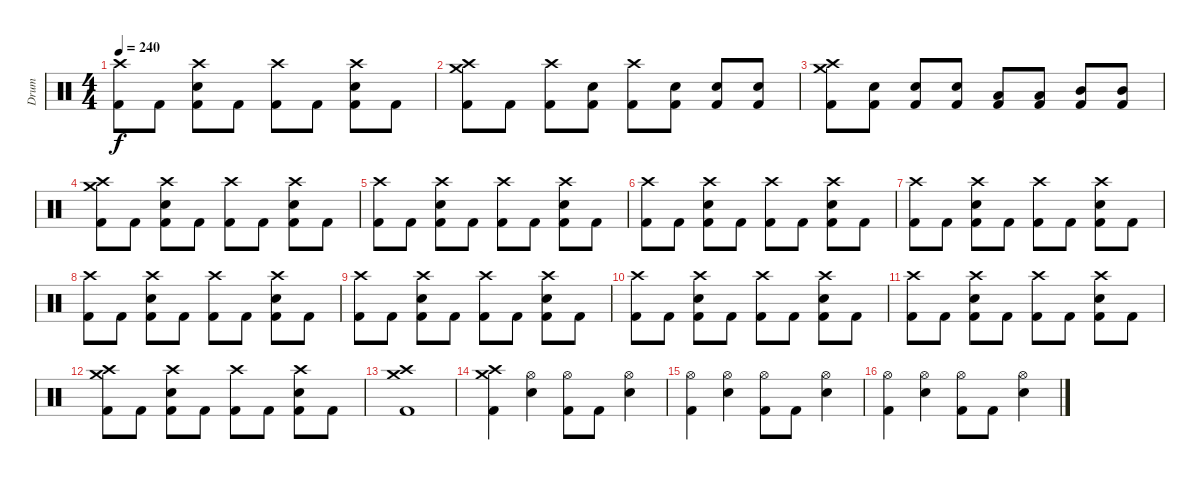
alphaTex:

\track ("Drum" "Drum") {instrument percussion}
\staff {score}
\articulation defaults
\ts (4 4)
\tempo 240
\clef neutral
\ks c
("Crash high (hit)" "Kick (hit) 2").8{dy f} "Kick (hit) 2".8 ("Crash high (hit)" "Kick (hit) 2" "Electric Snare (hit)").8 "Kick (hit) 2".8 ("Crash high (hit)" "Kick (hit) 2").8 "Kick (hit) 2".8 ("Crash high (hit)" "Kick (hit) 2" "Electric Snare (hit)").8 "Kick (hit) 2".8 |
("Crash high (hit)" "Kick (hit) 2" "Crash medium (hit)").8 "Kick (hit) 2".8 ("Crash high (hit)" "Kick (hit) 2").8 ("Kick (hit) 2" "Electric Snare (hit)").8 ("Crash high (hit)" "Kick (hit) 2").8 ("Kick (hit) 2" "Electric Snare (hit)").8 ("Kick (hit) 2" "Electric Snare (hit)").8 ("Kick (hit) 2" "Electric Snare (hit)").8 |
("Crash high (hit)" "Kick (hit) 2" "Crash medium (hit)").8 ("Kick (hit) 2" "Electric Snare (hit)").8 ("Kick (hit) 2" "Electric Snare (hit)").8 ("Kick (hit) 2" "Electric Snare (hit)").8 ("Kick (hit) 2" "Low Tom (hit)").8 ("Kick (hit) 2" "Low Tom (hit)").8 ("Kick (hit) 2" "Mid Tom (hit)").8 ("Kick (hit) 2" "Mid Tom (hit)").8 |
("Crash high (hit)" "Kick (hit) 2" "Crash medium (hit)").8 "Kick (hit) 2".8 ("Crash high (hit)" "Kick (hit) 2" "Electric Snare (hit)").8 "Kick (hit) 2".8 ("Crash high (hit)" "Kick (hit) 2").8 "Kick (hit) 2".8 ("Crash high (hit)" "Kick (hit) 2" "Electric Snare (hit)").8 "Kick (hit) 2".8 |
("Crash high (hit)" "Kick (hit) 2").8 "Kick (hit) 2".8 ("Crash high (hit)" "Kick (hit) 2" "Electric Snare (hit)").8 "Kick (hit) 2".8 ("Crash high (hit)" "Kick (hit) 2").8 "Kick (hit) 2".8 ("Crash high (hit)" "Kick (hit) 2" "Electric Snare (hit)").8 "Kick (hit) 2".8 |
("Crash high (hit)" "Kick (hit) 2").8 "Kick (hit) 2".8 ("Crash high (hit)" "Kick (hit) 2" "Electric Snare (hit)").8 "Kick (hit) 2".8 ("Crash high (hit)" "Kick (hit) 2").8 "Kick (hit) 2".8 ("Crash high (hit)" "Kick (hit) 2" "Electric Snare (hit)").8 "Kick (hit) 2".8 |
("Crash high (hit)" "Kick (hit) 2").8 "Kick (hit) 2".8 ("Crash high (hit)" "Kick (hit) 2" "Electric Snare (hit)").8 "Kick (hit) 2".8 ("Crash high (hit)" "Kick (hit) 2").8 "Kick (hit) 2".8 ("Crash high (hit)" "Kick (hit) 2" "Electric Snare (hit)").8 "Kick (hit) 2".8 |
("Crash high (hit)" "Kick (hit) 2").8 "Kick (hit) 2".8 ("Crash high (hit)" "Kick (hit) 2" "Electric Snare (hit)").8 "Kick (hit) 2".8 ("Crash high (hit)" "Kick (hit) 2").8 "Kick (hit) 2".8 ("Crash high (hit)" "Kick (hit) 2" "Electric Snare (hit)").8 "Kick (hit) 2".8 |
("Crash high (hit)" "Kick (hit) 2").8 "Kick (hit) 2".8 ("Crash high (hit)" "Kick (hit) 2" "Electric Snare (hit)").8 "Kick (hit) 2".8 ("Crash high (hit)" "Kick (hit) 2").8 "Kick (hit) 2".8 ("Crash high (hit)" "Kick (hit) 2" "Electric Snare (hit)").8 "Kick (hit) 2".8 |
("Crash high (hit)" "Kick (hit) 2").8 "Kick (hit) 2".8 ("Crash high (hit)" "Kick (hit) 2" "Electric Snare (hit)").8 "Kick (hit) 2".8 ("Crash high (hit)" "Kick (hit) 2").8 "Kick (hit) 2".8 ("Crash high (hit)" "Kick (hit) 2" "Electric Snare (hit)").8 "Kick (hit) 2".8 |
("Crash high (hit)" "Kick (hit) 2").8 "Kick (hit) 2".8 ("Crash high (hit)" "Kick (hit) 2" "Electric Snare (hit)").8 "Kick (hit) 2".8 ("Crash high (hit)" "Kick (hit) 2").8 "Kick (hit) 2".8 ("Crash high (hit)" "Kick (hit) 2" "Electric Snare (hit)").8 "Kick (hit) 2".8 |
("Crash high (hit)" "Kick (hit) 2" "Crash medium (hit)").8 "Kick (hit) 2".8 ("Crash high (hit)" "Kick (hit) 2" "Electric Snare (hit)").8 "Kick (hit) 2".8 ("Crash high (hit)" "Kick (hit) 2").8 "Kick (hit) 2".8 ("Crash high (hit)" "Kick (hit) 2" "Electric Snare (hit)").8 "Kick (hit) 2".8 |
("Crash high (hit)" "Kick (hit) 2" "Crash medium (hit)").1 |
("Crash high (hit)" "Kick (hit) 2" "Crash medium (hit)").4 ("Hi-Hat (open)" "Electric Snare (hit)").4 ("Hi-Hat (open)" "Kick (hit) 2").8 "Kick (hit) 2".8 ("Hi-Hat (open)" "Electric Snare (hit)").4 |
("Hi-Hat (open)" "Kick (hit) 2").4 ("Hi-Hat (open)" "Electric Snare (hit)").4 ("Hi-Hat (open)" "Kick (hit) 2").8 "Kick (hit) 2".8 ("Hi-Hat (open)" "Electric Snare (hit)").4 |
("Hi-Hat (open)" "Kick (hit) 2").4 ("Hi-Hat (open)" "Electric Snare (hit)").4 ("Hi-Hat (open)" "Kick (hit) 2").8 "Kick (hit) 2".8 ("Hi-Hat (open)" "Electric Snare (hit)").4
